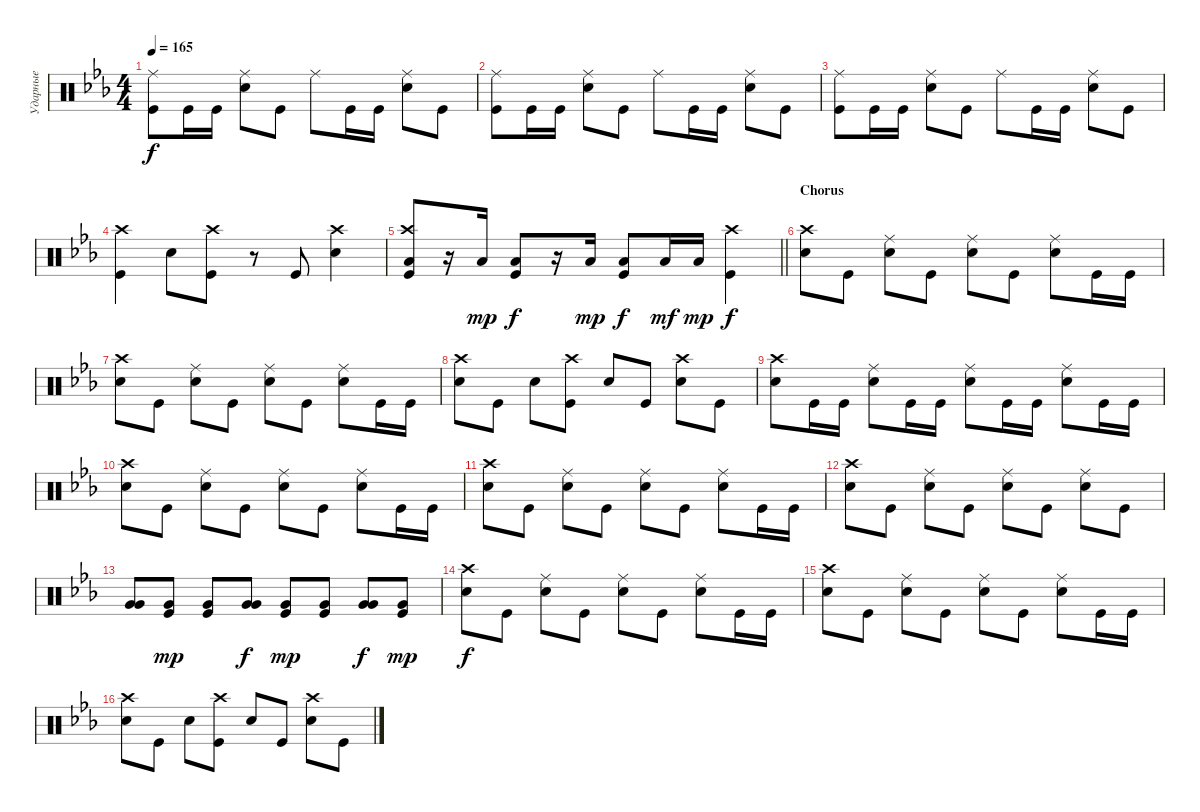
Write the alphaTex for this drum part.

\track ("Ударные" "Ударные") {instrument percussion}
\staff {score}
\articulation defaults
\ts (4 4)
\tempo 165
\clef neutral
\ks cminor
("Kick (hit)" "Ride (middle)").8{dy f} "Kick (hit)".16 "Kick (hit)".16 ("Snare (hit) 2" "Ride (middle)").8 "Kick (hit)".8 "Ride (middle)".8 "Kick (hit)".16 "Kick (hit)".16 ("Snare (hit) 2" "Ride (middle)").8 "Kick (hit)".8 |
("Kick (hit)" "Ride (middle)").8 "Kick (hit)".16 "Kick (hit)".16 ("Snare (hit) 2" "Ride (middle)").8 "Kick (hit)".8 "Ride (middle)".8 "Kick (hit)".16 "Kick (hit)".16 ("Snare (hit) 2" "Ride (middle)").8 "Kick (hit)".8 |
("Kick (hit)" "Ride (middle)").8 "Kick (hit)".16 "Kick (hit)".16 ("Snare (hit) 2" "Ride (middle)").8 "Kick (hit)".8 "Ride (middle)".8 "Kick (hit)".16 "Kick (hit)".16 ("Snare (hit) 2" "Ride (middle)").8 "Kick (hit)".8 |
("Kick (hit)" "Crash high (hit)").4 "Snare (hit) 2".8 ("Kick (hit)" "Crash high (hit)").8 r.8 "Kick (hit)".8 ("Snare (hit) 2" "Crash high (hit)").4 |
\barLineRight lightlight
("Kick (hit)" "Crash high (hit)" "Low Floor Tom (hit)").8 r.16 "Low Floor Tom (hit)".16{dy mp} ("Kick (hit)" "Low Floor Tom (hit)").8{dy f} r.16 "Low Floor Tom (hit)".16{dy mp} ("Low Floor Tom (hit)" "Kick (hit)").8{dy f} "Low Floor Tom (hit)".16{dy mf} "Low Floor Tom (hit)".16{dy mp} ("Kick (hit)" "Crash high (hit)").4{dy f} |
\section ("" "Chorus")
("Snare (hit) 2" "Crash high (hit)").8 "Kick (hit)".8 ("Snare (hit) 2" "Ride (middle)").8 "Kick (hit)".8 ("Snare (hit) 2" "Ride (middle)").8 "Kick (hit)".8 ("Snare (hit) 2" "Ride (middle)").8 "Kick (hit)".16 "Kick (hit)".16 |
("Snare (hit) 2" "Crash high (hit)").8 "Kick (hit)".8 ("Snare (hit) 2" "Ride (middle)").8 "Kick (hit)".8 ("Snare (hit) 2" "Ride (middle)").8 "Kick (hit)".8 ("Snare (hit) 2" "Ride (middle)").8 "Kick (hit)".16 "Kick (hit)".16 |
("Snare (hit) 2" "Crash high (hit)").8 "Kick (hit)".8 "Snare (hit) 2".8 ("Kick (hit)" "Crash high (hit)").8 "Snare (hit) 2".8 "Kick (hit)".8 ("Snare (hit) 2" "Crash high (hit)").8 "Kick (hit)".8 |
("Snare (hit) 2" "Crash high (hit)").8 "Kick (hit)".16 "Kick (hit)".16 ("Snare (hit) 2" "Ride (middle)").8 "Kick (hit)".16 "Kick (hit)".16 ("Snare (hit) 2" "Ride (middle)").8 "Kick (hit)".16 "Kick (hit)".16 ("Snare (hit) 2" "Ride (middle)").8 "Kick (hit)".16 "Kick (hit)".16 |
("Snare (hit) 2" "Crash high (hit)").8 "Kick (hit)".8 ("Snare (hit) 2" "Ride (middle)").8 "Kick (hit)".8 ("Snare (hit) 2" "Ride (middle)").8 "Kick (hit)".8 ("Snare (hit) 2" "Ride (middle)").8 "Kick (hit)".16 "Kick (hit)".16 |
("Snare (hit) 2" "Crash high (hit)").8 "Kick (hit)".8 ("Snare (hit) 2" "Ride (middle)").8 "Kick (hit)".8 ("Snare (hit) 2" "Ride (middle)").8 "Kick (hit)".8 ("Snare (hit) 2" "Ride (middle)").8 "Kick (hit)".16 "Kick (hit)".16 |
("Snare (hit) 2" "Crash high (hit)").8 "Kick (hit)".8 ("Snare (hit) 2" "Ride (middle)").8 "Kick (hit)".8 ("Snare (hit) 2" "Ride (middle)").8 "Kick (hit)".8 ("Snare (hit) 2" "Ride (middle)").8 "Kick (hit)".8 |
("Very Low Tom (hit)" "Very Low Tom (hit)").8{bd 240} ("Kick (hit)" "Very Low Tom (hit)").8{dy mp} ("Kick (hit)" "Very Low Tom (hit)").8 ("Very Low Tom (hit)" "Very Low Tom (hit)").8{bd 240 dy f} ("Kick (hit)" "Very Low Tom (hit)").8{dy mp} ("Kick (hit)" "Very Low Tom (hit)").8 ("Very Low Tom (hit)" "Very Low Tom (hit)").8{bd 240 dy f} ("Kick (hit)" "Very Low Tom (hit)").8{dy mp} |
("Snare (hit) 2" "Crash high (hit)").8{dy f} "Kick (hit)".8 ("Snare (hit) 2" "Ride (middle)").8 "Kick (hit)".8 ("Snare (hit) 2" "Ride (middle)").8 "Kick (hit)".8 ("Snare (hit) 2" "Ride (middle)").8 "Kick (hit)".16 "Kick (hit)".16 |
("Snare (hit) 2" "Crash high (hit)").8 "Kick (hit)".8 ("Snare (hit) 2" "Ride (middle)").8 "Kick (hit)".8 ("Snare (hit) 2" "Ride (middle)").8 "Kick (hit)".8 ("Snare (hit) 2" "Ride (middle)").8 "Kick (hit)".16 "Kick (hit)".16 |
("Snare (hit) 2" "Crash high (hit)").8 "Kick (hit)".8 "Snare (hit) 2".8 ("Kick (hit)" "Crash high (hit)").8 "Snare (hit) 2".8 "Kick (hit)".8 ("Snare (hit) 2" "Crash high (hit)").8 "Kick (hit)".8
